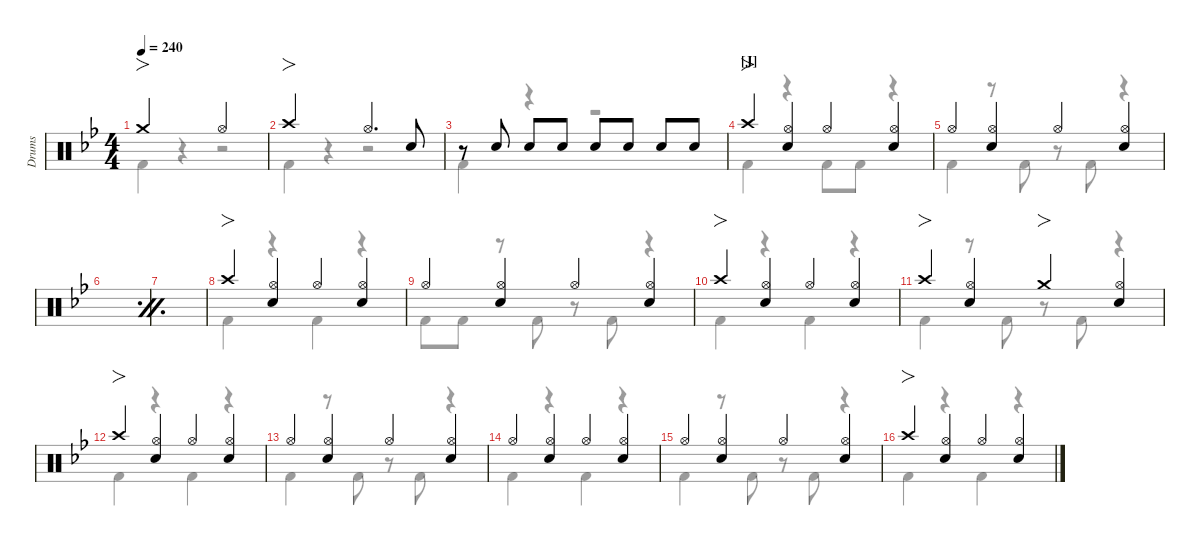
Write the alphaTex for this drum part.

\defaultSystemsLayout 4
\hideDynamics
\bracketExtendMode nobrackets
\otherSystemsTrackNameOrientation horizontal
\track ("Drums" "Drums") {defaultSystemsLayout 4 instrument percussion}
\staff {score}
\articulation defaults
\voice
\ts (4 4)
\tempo 240
\clef neutral
\scale
0.972105
\ks bb "Crash medium (hit)"{acc forcenatural}.2{fo dy f beam Up} "Hi-Hat (open)"{acc forcenatural}.2{beam Up}
|
\scale
0.972105 "Crash high (hit)"{acc forcenatural}.2{fo beam Up} "Hi-Hat (open)"{acc forcenatural}.4{d beam Up} "Snare (hit) 2"{acc forcenatural}.8{beam Up} |
\scale
0.98979 r.8{beam Up} "Snare (hit) 2"{acc forcenatural}.8{dy mf beam Up} "Snare (hit) 2"{acc forcenatural}.8{dy f beam Up} "Snare (hit) 2"{acc forcenatural}.8{dy mf beam Up} "Snare (hit) 2"{acc forcenatural}.8{dy f beam Up} "Snare (hit) 2"{acc forcenatural}.8{dy mf beam Up} "Snare (hit) 2"{acc forcenatural}.8{dy f beam Up} "Snare (hit) 2"{acc forcenatural}.8{dy mf beam Up} |
\section ("J" "")
\scale
1.07042 "Crash high (hit)"{acc forcenatural}.4{fo dy f beam Up} ("Hi-Hat (open)"{acc forcenatural} "Snare (hit) 2"{acc forcenatural}).4{beam Up} "Hi-Hat (open)"{acc forcenatural}.4{beam Up} ("Hi-Hat (open)"{acc forcenatural} "Snare (hit) 2"{acc forcenatural}).4{beam Up} |
\scale
0.976526 "Hi-Hat (open)"{acc forcenatural}.4{beam Up} ("Hi-Hat (open)"{acc forcenatural} "Snare (hit) 2"{acc forcenatural}).4{beam Up} "Hi-Hat (open)"{acc forcenatural}.4{beam Up} ("Hi-Hat (open)"{acc forcenatural} "Snare (hit) 2"{acc forcenatural}).4{beam Up} |
\simile firstofdouble
\scale
0.976526 |
\simile secondofdouble
\scale
0.976526 |
\simile none
\scale
1.07042 "Crash high (hit)"{acc forcenatural}.4{fo beam Up} ("Hi-Hat (open)"{acc forcenatural} "Snare (hit) 2"{acc forcenatural}).4{beam Up} "Hi-Hat (open)"{acc forcenatural}.4{beam Up} ("Hi-Hat (open)"{acc forcenatural} "Snare (hit) 2"{acc forcenatural}).4{beam Up} |
\scale
0.976526 "Hi-Hat (open)"{acc forcenatural}.4{beam Up} ("Hi-Hat (open)"{acc forcenatural} "Snare (hit) 2"{acc forcenatural}).4{beam Up} "Hi-Hat (open)"{acc forcenatural}.4{beam Up} ("Hi-Hat (open)"{acc forcenatural} "Snare (hit) 2"{acc forcenatural}).4{beam Up} |
\scale
0.976526 "Crash high (hit)"{acc forcenatural}.4{fo beam Up} ("Hi-Hat (open)"{acc forcenatural} "Snare (hit) 2"{acc forcenatural}).4{beam Up} "Hi-Hat (open)"{acc forcenatural}.4{beam Up} ("Hi-Hat (open)"{acc forcenatural} "Snare (hit) 2"{acc forcenatural}).4{beam Up} |
\scale
0.976526 "Crash high (hit)"{acc forcenatural}.4{fo beam Up} ("Hi-Hat (open)"{acc forcenatural} "Snare (hit) 2"{acc forcenatural}).4{beam Up} "Crash medium (hit)"{acc forcenatural}.4{fo beam Up} ("Hi-Hat (open)"{acc forcenatural} "Snare (hit) 2"{acc forcenatural}).4{beam Up} |
\scale
1.14499 "Crash high (hit)"{acc forcenatural}.4{fo beam Up} ("Hi-Hat (open)"{acc forcenatural} "Snare (hit) 2"{acc forcenatural}).4{beam Up} "Hi-Hat (open)"{acc forcenatural}.4{beam Up} ("Hi-Hat (open)"{acc forcenatural} "Snare (hit) 2"{acc forcenatural}).4{beam Up} |
\scale
0.929975 "Hi-Hat (open)"{acc forcenatural}.4{beam Up} ("Hi-Hat (open)"{acc forcenatural} "Snare (hit) 2"{acc forcenatural}).4{beam Up} "Hi-Hat (open)"{acc forcenatural}.4{beam Up} ("Hi-Hat (open)"{acc forcenatural} "Snare (hit) 2"{acc forcenatural}).4{beam Up} |
\scale
0.929975 "Hi-Hat (open)"{acc forcenatural}.4{beam Up} ("Hi-Hat (open)"{acc forcenatural} "Snare (hit) 2"{acc forcenatural}).4{beam Up} "Hi-Hat (open)"{acc forcenatural}.4{beam Up} ("Hi-Hat (open)"{acc forcenatural} "Snare (hit) 2"{acc forcenatural}).4{beam Up} |
\scale
0.995058 "Hi-Hat (open)"{acc forcenatural}.4{beam Up} ("Hi-Hat (open)"{acc forcenatural} "Snare (hit) 2"{acc forcenatural}).4{beam Up} "Hi-Hat (open)"{acc forcenatural}.4{beam Up} ("Hi-Hat (open)"{acc forcenatural} "Snare (hit) 2"{acc forcenatural}).4{beam Up} |
\scale
1.14499 "Crash high (hit)"{acc forcenatural}.4{fo beam Up} ("Hi-Hat (open)"{acc forcenatural} "Snare (hit) 2"{acc forcenatural}).4{beam Up} "Hi-Hat (open)"{acc forcenatural}.4{beam Up} ("Hi-Hat (open)"{acc forcenatural} "Snare (hit) 2"{acc forcenatural}).4{beam Up}
\voice
\clef neutral
\ottava regular
\simile none
\scale
0.972105
\ks bb "Kick (hit) 2"{acc forcenatural}.4{dy f beam Down}
r.4{beam Down} r.2{beam Down} |
\scale
0.972105 "Kick (hit) 2"{acc forcenatural}.4{beam Down} r.4{beam Down} r.2{beam Down} |
\scale
0.98979 "Kick (hit) 2"{acc forcenatural}.4{beam Down} r.4{beam Down} r.2{beam Down} |
\scale
1.07042 "Kick (hit) 2"{acc forcenatural}.4{beam Down} r.4{beam Down} "Kick (hit) 2"{acc forcenatural}.8{beam Down} "Kick (hit) 2"{acc forcenatural}.8{beam Down} r.4{beam Down} |
\scale
0.976526 "Kick (hit) 2"{acc forcenatural}.4{beam Down} r.8{beam Down} "Kick (hit) 2"{acc forcenatural}.8{beam Down} r.8{beam Down} "Kick (hit) 2"{acc forcenatural}.8{beam Down} r.4{beam Down} |
\simile firstofdouble
\scale
0.976526 |
\simile secondofdouble
\scale
0.976526 |
\simile none
\scale
1.07042 "Kick (hit) 2"{acc forcenatural}.4{beam Down} r.4{beam Down} "Kick (hit) 2"{acc forcenatural}.4{beam Down} r.4{beam Down} |
\scale
0.976526 "Kick (hit) 2"{acc forcenatural}.8{beam Down} "Kick (hit) 2"{acc forcenatural}.8{beam Down} r.8{beam Down} "Kick (hit) 2"{acc forcenatural}.8{beam Down} r.8{beam Down} "Kick (hit) 2"{acc forcenatural}.8{beam Down} r.4{beam Down} |
\scale
0.976526 "Kick (hit) 2"{acc forcenatural}.4{beam Down} r.4{beam Down} "Kick (hit) 2"{acc forcenatural}.4{beam Down} r.4{beam Down} |
\scale
0.976526 "Kick (hit) 2"{acc forcenatural}.4{beam Down} r.8{beam Down} "Kick (hit) 2"{acc forcenatural}.8{beam Down} r.8{beam Down} "Kick (hit) 2"{acc forcenatural}.8{beam Down} r.4{beam Down} |
\scale
1.14499 "Kick (hit) 2"{acc forcenatural}.4{beam Down} r.4{beam Down} "Kick (hit) 2"{acc forcenatural}.4{beam Down} r.4{beam Down} |
\scale
0.929975 "Kick (hit) 2"{acc forcenatural}.4{beam Down} r.8{beam Down} "Kick (hit) 2"{acc forcenatural}.8{beam Down} r.8{beam Down} "Kick (hit) 2"{acc forcenatural}.8{beam Down} r.4{beam Down} |
\scale
0.929975 "Kick (hit) 2"{acc forcenatural}.4{beam Down} r.4{beam Down} "Kick (hit) 2"{acc forcenatural}.4{beam Down} r.4{beam Down} |
\scale
0.995058 "Kick (hit) 2"{acc forcenatural}.4{beam Down} r.8{beam Down} "Kick (hit) 2"{acc forcenatural}.8{beam Down} r.8{beam Down} "Kick (hit) 2"{acc forcenatural}.8{beam Down} r.4{beam Down} |
\scale
1.14499 "Kick (hit) 2"{acc forcenatural}.4{beam Down} r.4{beam Down} "Kick (hit) 2"{acc forcenatural}.4{beam Down} r.4{beam Down}
